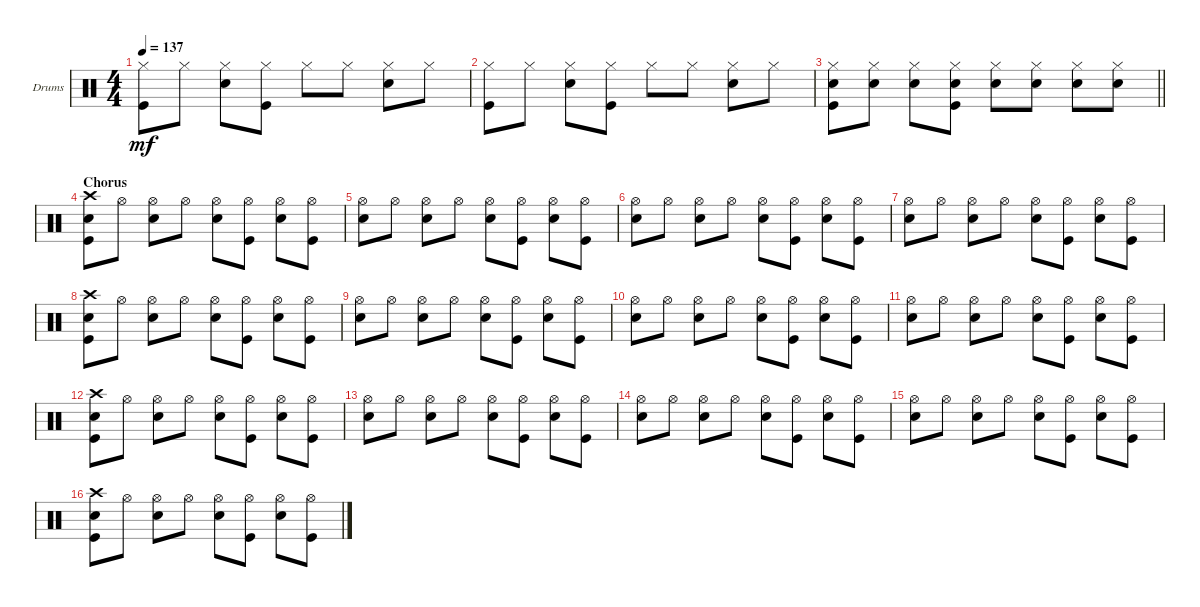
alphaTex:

\bracketExtendMode groupsimilarinstruments
\firstSystemTrackNameOrientation horizontal
\otherSystemsTrackNameOrientation horizontal
\track ("Drumkit" "Drums") {instrument percussion}
\staff {score}
\articulation defaults
\ts (4 4)
\tempo 137
\clef neutral
\scale
0.333333
\ks c
("Kick (hit)" "Hi-Hat (closed)").8{dy mf} "Hi-Hat (closed)".8 ("Hi-Hat (closed)" "Snare (hit) 2").8 ("Hi-Hat (closed)" "Kick (hit)").8 "Hi-Hat (closed)".8 "Hi-Hat (closed)".8 ("Hi-Hat (closed)" "Snare (hit) 2").8 "Hi-Hat (closed)".8 |
\scale
0.333333 ("Kick (hit)" "Hi-Hat (closed)").8 "Hi-Hat (closed)".8 ("Hi-Hat (closed)" "Snare (hit) 2").8 ("Hi-Hat (closed)" "Kick (hit)").8 "Hi-Hat (closed)".8 "Hi-Hat (closed)".8 ("Hi-Hat (closed)" "Snare (hit) 2").8 "Hi-Hat (closed)".8 |
\scale
0.333333
\barLineRight lightlight
("Kick (hit)" "Hi-Hat (closed)" "Snare (hit) 2").8 ("Hi-Hat (closed)" "Snare (hit) 2").8 ("Hi-Hat (closed)" "Snare (hit) 2").8 ("Hi-Hat (closed)" "Kick (hit)" "Snare (hit) 2").8 ("Hi-Hat (closed)" "Snare (hit) 2").8 ("Hi-Hat (closed)" "Snare (hit) 2").8 ("Hi-Hat (closed)" "Snare (hit) 2").8 ("Hi-Hat (closed)" "Snare (hit) 2").8 |
\section ("" "Chorus")
\scale
0.333333 ("Crash high (hit)" "Kick (hit)" "Snare (hit) 2").8 "Hi-Hat (open)".8 ("Hi-Hat (open)" "Snare (hit) 2").8 "Hi-Hat (open)".8 ("Hi-Hat (open)" "Snare (hit) 2").8 ("Hi-Hat (open)" "Kick (hit)").8 ("Hi-Hat (open)" "Snare (hit) 2").8 ("Hi-Hat (open)" "Kick (hit)").8 |
\scale
0.333333 ("Hi-Hat (open)" "Snare (hit) 2").8 "Hi-Hat (open)".8 ("Hi-Hat (open)" "Snare (hit) 2").8 "Hi-Hat (open)".8 ("Hi-Hat (open)" "Snare (hit) 2").8 ("Hi-Hat (open)" "Kick (hit)").8 ("Hi-Hat (open)" "Snare (hit) 2").8 ("Hi-Hat (open)" "Kick (hit)").8 |
\scale
0.333333 ("Hi-Hat (open)" "Snare (hit) 2").8 "Hi-Hat (open)".8 ("Hi-Hat (open)" "Snare (hit) 2").8 "Hi-Hat (open)".8 ("Hi-Hat (open)" "Snare (hit) 2").8 ("Hi-Hat (open)" "Kick (hit)").8 ("Hi-Hat (open)" "Snare (hit) 2").8 ("Hi-Hat (open)" "Kick (hit)").8 |
\scale
0.333333 ("Hi-Hat (open)" "Snare (hit) 2").8 "Hi-Hat (open)".8 ("Hi-Hat (open)" "Snare (hit) 2").8 "Hi-Hat (open)".8 ("Hi-Hat (open)" "Snare (hit) 2").8 ("Hi-Hat (open)" "Kick (hit)").8 ("Hi-Hat (open)" "Snare (hit) 2").8 ("Hi-Hat (open)" "Kick (hit)").8 |
\scale
0.333333 ("Crash high (hit)" "Kick (hit)" "Snare (hit) 2").8 "Hi-Hat (open)".8 ("Hi-Hat (open)" "Snare (hit) 2").8 "Hi-Hat (open)".8 ("Hi-Hat (open)" "Snare (hit) 2").8 ("Hi-Hat (open)" "Kick (hit)").8 ("Hi-Hat (open)" "Snare (hit) 2").8 ("Hi-Hat (open)" "Kick (hit)").8 |
\scale
0.333333 ("Hi-Hat (open)" "Snare (hit) 2").8 "Hi-Hat (open)".8 ("Hi-Hat (open)" "Snare (hit) 2").8 "Hi-Hat (open)".8 ("Hi-Hat (open)" "Snare (hit) 2").8 ("Hi-Hat (open)" "Kick (hit)").8 ("Hi-Hat (open)" "Snare (hit) 2").8 ("Hi-Hat (open)" "Kick (hit)").8 |
\scale
0.333333 ("Hi-Hat (open)" "Snare (hit) 2").8 "Hi-Hat (open)".8 ("Hi-Hat (open)" "Snare (hit) 2").8 "Hi-Hat (open)".8 ("Hi-Hat (open)" "Snare (hit) 2").8 ("Hi-Hat (open)" "Kick (hit)").8 ("Hi-Hat (open)" "Snare (hit) 2").8 ("Hi-Hat (open)" "Kick (hit)").8 |
\scale
0.333333 ("Hi-Hat (open)" "Snare (hit) 2").8 "Hi-Hat (open)".8 ("Hi-Hat (open)" "Snare (hit) 2").8 "Hi-Hat (open)".8 ("Hi-Hat (open)" "Snare (hit) 2").8 ("Hi-Hat (open)" "Kick (hit)").8 ("Hi-Hat (open)" "Snare (hit) 2").8 ("Hi-Hat (open)" "Kick (hit)").8 |
\scale
0.333333 ("Crash high (hit)" "Kick (hit)" "Snare (hit) 2").8 "Hi-Hat (open)".8 ("Hi-Hat (open)" "Snare (hit) 2").8 "Hi-Hat (open)".8 ("Hi-Hat (open)" "Snare (hit) 2").8 ("Hi-Hat (open)" "Kick (hit)").8 ("Hi-Hat (open)" "Snare (hit) 2").8 ("Hi-Hat (open)" "Kick (hit)").8 |
\scale
0.333333 ("Hi-Hat (open)" "Snare (hit) 2").8 "Hi-Hat (open)".8 ("Hi-Hat (open)" "Snare (hit) 2").8 "Hi-Hat (open)".8 ("Hi-Hat (open)" "Snare (hit) 2").8 ("Hi-Hat (open)" "Kick (hit)").8 ("Hi-Hat (open)" "Snare (hit) 2").8 ("Hi-Hat (open)" "Kick (hit)").8 |
\scale
0.333333 ("Hi-Hat (open)" "Snare (hit) 2").8 "Hi-Hat (open)".8 ("Hi-Hat (open)" "Snare (hit) 2").8 "Hi-Hat (open)".8 ("Hi-Hat (open)" "Snare (hit) 2").8 ("Hi-Hat (open)" "Kick (hit)").8 ("Hi-Hat (open)" "Snare (hit) 2").8 ("Hi-Hat (open)" "Kick (hit)").8 |
\scale
0.333333 ("Hi-Hat (open)" "Snare (hit) 2").8 "Hi-Hat (open)".8 ("Hi-Hat (open)" "Snare (hit) 2").8 "Hi-Hat (open)".8 ("Hi-Hat (open)" "Snare (hit) 2").8 ("Hi-Hat (open)" "Kick (hit)").8 ("Hi-Hat (open)" "Snare (hit) 2").8 ("Hi-Hat (open)" "Kick (hit)").8 |
\scale
0.333333 ("Crash high (hit)" "Kick (hit)" "Snare (hit) 2").8 "Hi-Hat (open)".8 ("Hi-Hat (open)" "Snare (hit) 2").8 "Hi-Hat (open)".8 ("Hi-Hat (open)" "Snare (hit) 2").8 ("Hi-Hat (open)" "Kick (hit)").8 ("Hi-Hat (open)" "Snare (hit) 2").8 ("Hi-Hat (open)" "Kick (hit)").8
